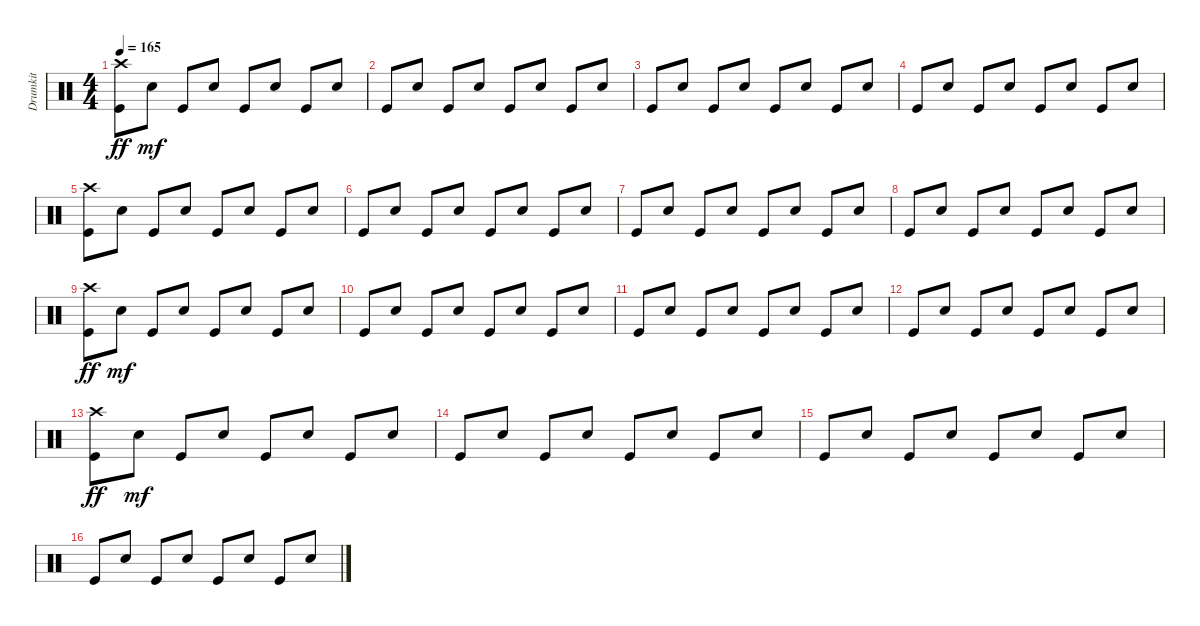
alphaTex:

\track ("Drumkit" "Drumkit") {instrument percussion}
\staff {score}
\articulation defaults
\ts (4 4)
\tempo 165
\clef neutral
\ks c
("Kick (hit)" "Crash high (hit)").8{dy ff} "Electric Snare (hit)".8{dy mf} "Kick (hit)".8 "Electric Snare (hit)".8 "Kick (hit)".8 "Electric Snare (hit)".8 "Kick (hit)".8 "Electric Snare (hit)".8 |
"Kick (hit)".8 "Electric Snare (hit)".8 "Kick (hit)".8 "Electric Snare (hit)".8 "Kick (hit)".8 "Electric Snare (hit)".8 "Kick (hit)".8 "Electric Snare (hit)".8 |
"Kick (hit)".8 "Electric Snare (hit)".8 "Kick (hit)".8 "Electric Snare (hit)".8 "Kick (hit)".8 "Electric Snare (hit)".8 "Kick (hit)".8 "Electric Snare (hit)".8 |
"Kick (hit)".8 "Electric Snare (hit)".8 "Kick (hit)".8 "Electric Snare (hit)".8 "Kick (hit)".8 "Electric Snare (hit)".8 "Kick (hit)".8 "Electric Snare (hit)".8 |
("Crash high (hit)" "Kick (hit)").8 "Electric Snare (hit)".8 "Kick (hit)".8 "Electric Snare (hit)".8 "Kick (hit)".8 "Electric Snare (hit)".8 "Kick (hit)".8 "Electric Snare (hit)".8 |
"Kick (hit)".8 "Electric Snare (hit)".8 "Kick (hit)".8 "Electric Snare (hit)".8 "Kick (hit)".8 "Electric Snare (hit)".8 "Kick (hit)".8 "Electric Snare (hit)".8 |
"Kick (hit)".8 "Electric Snare (hit)".8 "Kick (hit)".8 "Electric Snare (hit)".8 "Kick (hit)".8 "Electric Snare (hit)".8 "Kick (hit)".8 "Electric Snare (hit)".8 |
"Kick (hit)".8 "Electric Snare (hit)".8 "Kick (hit)".8 "Electric Snare (hit)".8 "Kick (hit)".8 "Electric Snare (hit)".8 "Kick (hit)".8 "Electric Snare (hit)".8 |
("Kick (hit)" "Crash high (hit)").8{dy ff} "Electric Snare (hit)".8{dy mf} "Kick (hit)".8 "Electric Snare (hit)".8 "Kick (hit)".8 "Electric Snare (hit)".8 "Kick (hit)".8 "Electric Snare (hit)".8 |
"Kick (hit)".8 "Electric Snare (hit)".8 "Kick (hit)".8 "Electric Snare (hit)".8 "Kick (hit)".8 "Electric Snare (hit)".8 "Kick (hit)".8 "Electric Snare (hit)".8 |
"Kick (hit)".8 "Electric Snare (hit)".8 "Kick (hit)".8 "Electric Snare (hit)".8 "Kick (hit)".8 "Electric Snare (hit)".8 "Kick (hit)".8 "Electric Snare (hit)".8 |
"Kick (hit)".8 "Electric Snare (hit)".8 "Kick (hit)".8 "Electric Snare (hit)".8 "Kick (hit)".8 "Electric Snare (hit)".8 "Kick (hit)".8 "Electric Snare (hit)".8 |
("Kick (hit)" "Crash high (hit)").8{dy ff} "Electric Snare (hit)".8{dy mf} "Kick (hit)".8 "Electric Snare (hit)".8 "Kick (hit)".8 "Electric Snare (hit)".8 "Kick (hit)".8 "Electric Snare (hit)".8 |
"Kick (hit)".8 "Electric Snare (hit)".8 "Kick (hit)".8 "Electric Snare (hit)".8 "Kick (hit)".8 "Electric Snare (hit)".8 "Kick (hit)".8 "Electric Snare (hit)".8 |
"Kick (hit)".8 "Electric Snare (hit)".8 "Kick (hit)".8 "Electric Snare (hit)".8 "Kick (hit)".8 "Electric Snare (hit)".8 "Kick (hit)".8 "Electric Snare (hit)".8 |
"Kick (hit)".8 "Electric Snare (hit)".8 "Kick (hit)".8 "Electric Snare (hit)".8 "Kick (hit)".8 "Electric Snare (hit)".8 "Kick (hit)".8 "Electric Snare (hit)".8
